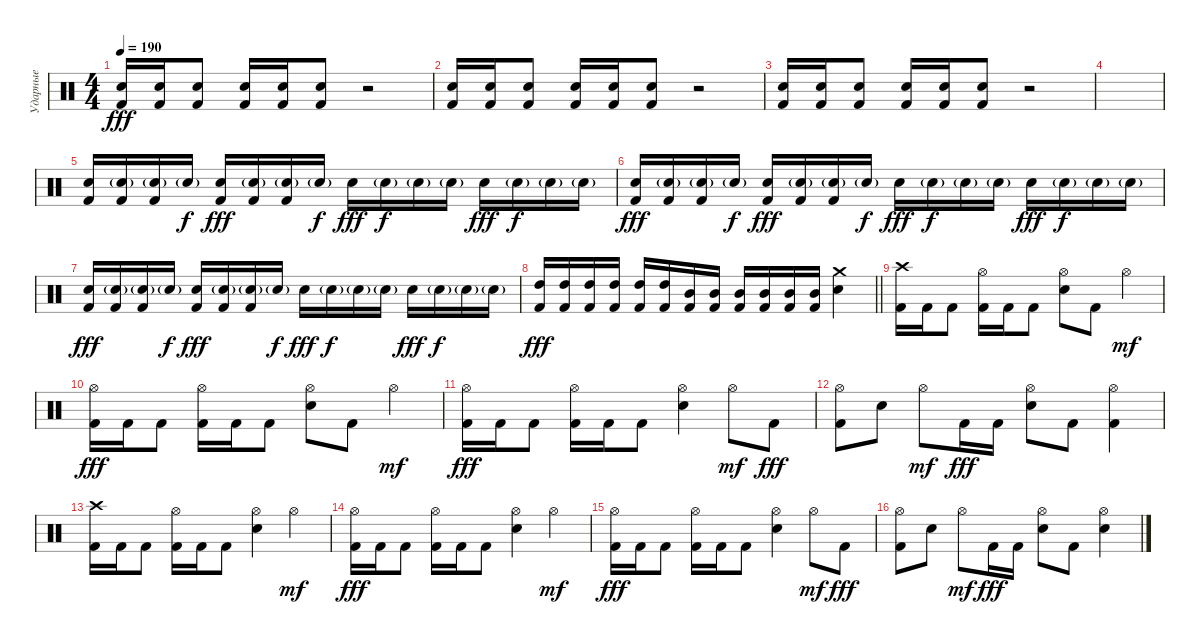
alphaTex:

\track ("Ударные" "Ударные") {instrument percussion}
\staff {score}
\articulation defaults
\ts (4 4)
\tempo 190
\clef neutral
\ks c
("Electric Snare (hit)" "Kick (hit) 2").16{dy fff} ("Electric Snare (hit)" "Kick (hit) 2").16 ("Electric Snare (hit)" "Kick (hit) 2").8 ("Electric Snare (hit)" "Kick (hit) 2").16 ("Electric Snare (hit)" "Kick (hit) 2").16 ("Electric Snare (hit)" "Kick (hit) 2").8 r.2 |
("Electric Snare (hit)" "Kick (hit) 2").16 ("Electric Snare (hit)" "Kick (hit) 2").16 ("Electric Snare (hit)" "Kick (hit) 2").8 ("Electric Snare (hit)" "Kick (hit) 2").16 ("Electric Snare (hit)" "Kick (hit) 2").16 ("Electric Snare (hit)" "Kick (hit) 2").8 r.2 |
("Electric Snare (hit)" "Kick (hit) 2").16 ("Electric Snare (hit)" "Kick (hit) 2").16 ("Electric Snare (hit)" "Kick (hit) 2").8 ("Electric Snare (hit)" "Kick (hit) 2").16 ("Electric Snare (hit)" "Kick (hit) 2").16 ("Electric Snare (hit)" "Kick (hit) 2").8 r.2 |
|
("Electric Snare (hit)" "Kick (hit) 2").16 ("Electric Snare (hit)"{g} "Kick (hit) 2").16 ("Electric Snare (hit)"{g} "Kick (hit) 2").16 "Electric Snare (hit)"{g}.16{dy f} ("Electric Snare (hit)" "Kick (hit) 2").16{dy fff} ("Electric Snare (hit)"{g} "Kick (hit) 2").16 ("Electric Snare (hit)"{g} "Kick (hit) 2").16 "Electric Snare (hit)"{g}.16{dy f} "Electric Snare (hit)".16{dy fff} "Electric Snare (hit)"{g}.16{dy f} "Electric Snare (hit)"{g}.16 "Electric Snare (hit)"{g}.16 "Electric Snare (hit)".16{dy fff} "Electric Snare (hit)"{g}.16{dy f} "Electric Snare (hit)"{g}.16 "Electric Snare (hit)"{g}.16 |
("Electric Snare (hit)" "Kick (hit) 2").16{dy fff} ("Electric Snare (hit)"{g} "Kick (hit) 2").16 ("Electric Snare (hit)"{g} "Kick (hit) 2").16 "Electric Snare (hit)"{g}.16{dy f} ("Electric Snare (hit)" "Kick (hit) 2").16{dy fff} ("Electric Snare (hit)"{g} "Kick (hit) 2").16 ("Electric Snare (hit)"{g} "Kick (hit) 2").16 "Electric Snare (hit)"{g}.16{dy f} "Electric Snare (hit)".16{dy fff} "Electric Snare (hit)"{g}.16{dy f} "Electric Snare (hit)"{g}.16 "Electric Snare (hit)"{g}.16 "Electric Snare (hit)".16{dy fff} "Electric Snare (hit)"{g}.16{dy f} "Electric Snare (hit)"{g}.16 "Electric Snare (hit)"{g}.16 |
("Electric Snare (hit)" "Kick (hit) 2").16{dy fff} ("Electric Snare (hit)"{g} "Kick (hit) 2").16 ("Electric Snare (hit)"{g} "Kick (hit) 2").16 "Electric Snare (hit)"{g}.16{dy f} ("Electric Snare (hit)" "Kick (hit) 2").16{dy fff} ("Electric Snare (hit)"{g} "Kick (hit) 2").16 ("Electric Snare (hit)"{g} "Kick (hit) 2").16 "Electric Snare (hit)"{g}.16{dy f} "Electric Snare (hit)".16{dy fff} "Electric Snare (hit)"{g}.16{dy f} "Electric Snare (hit)"{g}.16 "Electric Snare (hit)"{g}.16 "Electric Snare (hit)".16{dy fff} "Electric Snare (hit)"{g}.16{dy f} "Electric Snare (hit)"{g}.16 "Electric Snare (hit)"{g}.16 |
\barLineRight lightlight
("High Tom (hit)" "Kick (hit) 2").16{dy fff} ("High Tom (hit)" "Kick (hit) 2").16 ("High Tom (hit)" "Kick (hit) 2").16 ("High Tom (hit)" "Kick (hit) 2").16 ("High Tom (hit)" "Kick (hit) 2").16 ("High Tom (hit)" "Kick (hit) 2").16 ("Mid Tom (hit)" "Kick (hit) 2").16 ("Mid Tom (hit)" "Kick (hit) 2").16 ("Mid Tom (hit)" "Kick (hit) 2").16 ("Mid Tom (hit)" "Kick (hit) 2").16 ("Mid Tom (hit)" "Kick (hit) 2").16 ("Mid Tom (hit)" "Kick (hit) 2").16 ("Crash medium (hit)" "Electric Snare (hit)").4 |
\section ("" "")
("Crash high (hit)" "Kick (hit) 2").16 "Kick (hit) 2".16 "Kick (hit) 2".8 ("Hi-Hat (open)" "Kick (hit) 2").16 "Kick (hit) 2".16 "Kick (hit) 2".8 ("Hi-Hat (open)" "Electric Snare (hit)").8 "Kick (hit) 2".8 "Hi-Hat (open)".4{dy mf} |
("Hi-Hat (open)" "Kick (hit) 2").16{dy fff} "Kick (hit) 2".16 "Kick (hit) 2".8 ("Hi-Hat (open)" "Kick (hit) 2").16 "Kick (hit) 2".16 "Kick (hit) 2".8 ("Hi-Hat (open)" "Electric Snare (hit)").8 "Kick (hit) 2".8 "Hi-Hat (open)".4{dy mf} |
("Hi-Hat (open)" "Kick (hit) 2").16{dy fff} "Kick (hit) 2".16 "Kick (hit) 2".8 ("Hi-Hat (open)" "Kick (hit) 2").16 "Kick (hit) 2".16 "Kick (hit) 2".8 ("Hi-Hat (open)" "Electric Snare (hit)").4 "Hi-Hat (open)".8{dy mf} "Kick (hit) 2".8{dy fff} |
("Hi-Hat (open)" "Kick (hit) 2").8 "Electric Snare (hit)".8 "Hi-Hat (open)".8{dy mf} "Kick (hit) 2".16{dy fff} "Kick (hit) 2".16 ("Hi-Hat (open)" "Electric Snare (hit)").8 "Kick (hit) 2".8 ("Hi-Hat (open)" "Kick (hit) 2").4 |
("Crash high (hit)" "Kick (hit) 2").16 "Kick (hit) 2".16 "Kick (hit) 2".8 ("Hi-Hat (open)" "Kick (hit) 2").16 "Kick (hit) 2".16 "Kick (hit) 2".8 ("Hi-Hat (open)" "Electric Snare (hit)").4 "Hi-Hat (open)".4{dy mf} |
("Hi-Hat (open)" "Kick (hit) 2").16{dy fff} "Kick (hit) 2".16 "Kick (hit) 2".8 ("Hi-Hat (open)" "Kick (hit) 2").16 "Kick (hit) 2".16 "Kick (hit) 2".8 ("Hi-Hat (open)" "Electric Snare (hit)").4 "Hi-Hat (open)".4{dy mf} |
("Hi-Hat (open)" "Kick (hit) 2").16{dy fff} "Kick (hit) 2".16 "Kick (hit) 2".8 ("Hi-Hat (open)" "Kick (hit) 2").16 "Kick (hit) 2".16 "Kick (hit) 2".8 ("Hi-Hat (open)" "Electric Snare (hit)").4 "Hi-Hat (open)".8{dy mf} "Kick (hit) 2".8{dy fff} |
("Hi-Hat (open)" "Kick (hit) 2").8 "Electric Snare (hit)".8 "Hi-Hat (open)".8{dy mf} "Kick (hit) 2".16{dy fff} "Kick (hit) 2".16 ("Hi-Hat (open)" "Electric Snare (hit)").8 "Kick (hit) 2".8 ("Hi-Hat (open)" "Electric Snare (hit)").4
